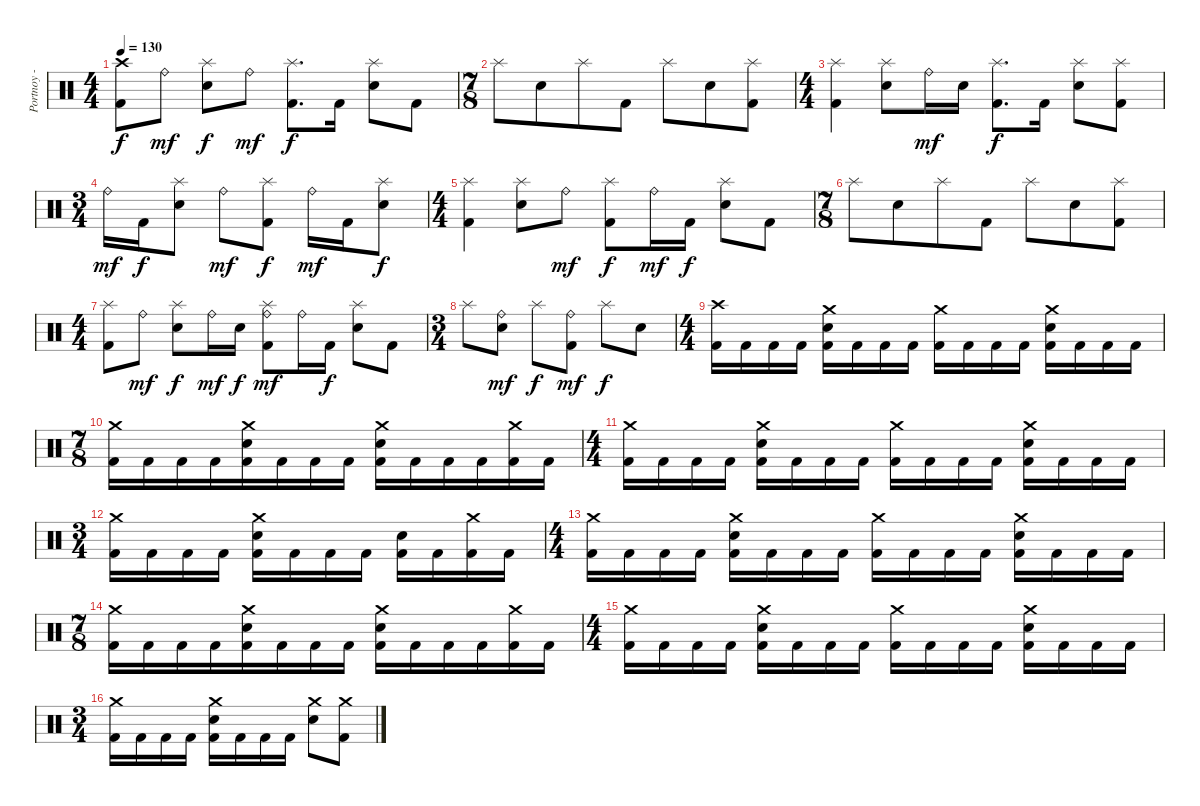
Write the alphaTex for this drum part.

\track ("Portnoy - Drums" "Portnoy - ") {instrument percussion}
\staff {score}
\articulation defaults
\ts (4 4)
\tempo 130
\clef neutral
\ks c
("Crash high (hit)" "Kick (hit) 2").8{dy f} "Ride (bell)".8{dy mf} ("Electric Snare (hit)" "Splash (hit)").8{dy f} "Ride (bell)".8{dy mf} ("Kick (hit) 2" "Splash (hit)").8{d dy f} "Kick (hit) 2".16 ("Electric Snare (hit)" "Splash (hit)").8 "Kick (hit) 2".8 |
\ts (7 8)
"Splash (hit)".8 "Electric Snare (hit)".8 "Splash (hit)".8 "Kick (hit) 2".8 "Splash (hit)".8 "Electric Snare (hit)".8 ("Kick (hit) 2" "Splash (hit)").8 |
\ts (4 4)
("Kick (hit) 2" "Splash (hit)").4 ("Electric Snare (hit)" "Splash (hit)").8 "Ride (bell)".16{dy mf} "Electric Snare (hit)".16 ("Kick (hit) 2" "Splash (hit)").8{d dy f} "Kick (hit) 2".16 ("Electric Snare (hit)" "Splash (hit)").8 ("Kick (hit) 2" "Splash (hit)").8 |
\ts (3 4)
"Ride (bell)".16{dy mf} "Kick (hit) 2".16{dy f} ("Electric Snare (hit)" "Splash (hit)").8 "Ride (bell)".8{dy mf} ("Kick (hit) 2" "Splash (hit)").8{dy f} "Ride (bell)".16{dy mf} "Kick (hit) 2".16 ("Electric Snare (hit)" "Splash (hit)").8{dy f} |
\ts (4 4)
("Kick (hit) 2" "Splash (hit)").4 ("Electric Snare (hit)" "Splash (hit)").8 "Ride (bell)".8{dy mf} ("Kick (hit) 2" "Splash (hit)").8{dy f} "Ride (bell)".16{dy mf} "Kick (hit) 2".16{dy f} ("Electric Snare (hit)" "Splash (hit)").8 "Kick (hit) 2".8 |
\ts (7 8)
"Splash (hit)".8 "Electric Snare (hit)".8 "Splash (hit)".8 "Kick (hit) 2".8 "Splash (hit)".8 "Electric Snare (hit)".8 ("Splash (hit)" "Kick (hit) 2").8 |
\ts (4 4)
("Kick (hit) 2" "Splash (hit)").8 "Ride (bell)".8{dy mf} ("Electric Snare (hit)" "Splash (hit)").8{dy f} "Ride (bell)".16{dy mf} "Electric Snare (hit)".16{dy f} ("Kick (hit) 2" "Splash (hit)" "Ride (bell)").8{dy mf} "Ride (bell)".16 "Kick (hit) 2".16{dy f} ("Electric Snare (hit)" "Splash (hit)").8 "Kick (hit) 2".8 |
\ts (3 4)
"Splash (hit)".8 ("Electric Snare (hit)" "Ride (bell)").8{dy mf} "Splash (hit)".8{dy f} ("Kick (hit) 2" "Ride (bell)").8{dy mf} "Splash (hit)".8{dy f} "Electric Snare (hit)".8 |
\ts (4 4)
("Crash high (hit)" "Kick (hit) 2").16 "Kick (hit) 2".16 "Kick (hit) 2".16 "Kick (hit) 2".16 ("Kick (hit) 2" "Electric Snare (hit)" "Crash medium (hit)").16 "Kick (hit) 2".16 "Kick (hit) 2".16 "Kick (hit) 2".16 ("Kick (hit) 2" "Crash medium (hit)").16 "Kick (hit) 2".16 "Kick (hit) 2".16 "Kick (hit) 2".16 ("Kick (hit) 2" "Electric Snare (hit)" "Crash medium (hit)").16 "Kick (hit) 2".16 "Kick (hit) 2".16 "Kick (hit) 2".16 |
\ts (7 8)
("Kick (hit) 2" "Crash medium (hit)").16 "Kick (hit) 2".16 "Kick (hit) 2".16 "Kick (hit) 2".16 ("Kick (hit) 2" "Electric Snare (hit)" "Crash medium (hit)").16 "Kick (hit) 2".16 "Kick (hit) 2".16 "Kick (hit) 2".16 ("Kick (hit) 2" "Electric Snare (hit)" "Crash medium (hit)").16 "Kick (hit) 2".16 "Kick (hit) 2".16 "Kick (hit) 2".16 ("Kick (hit) 2" "Crash medium (hit)").16 "Kick (hit) 2".16 |
\ts (4 4)
("Kick (hit) 2" "Crash medium (hit)").16 "Kick (hit) 2".16 "Kick (hit) 2".16 "Kick (hit) 2".16 ("Kick (hit) 2" "Crash medium (hit)" "Electric Snare (hit)").16 "Kick (hit) 2".16 "Kick (hit) 2".16 "Kick (hit) 2".16 ("Kick (hit) 2" "Crash medium (hit)").16 "Kick (hit) 2".16 "Kick (hit) 2".16 "Kick (hit) 2".16 ("Kick (hit) 2" "Electric Snare (hit)" "Crash medium (hit)").16 "Kick (hit) 2".16 "Kick (hit) 2".16 "Kick (hit) 2".16 |
\ts (3 4)
("Kick (hit) 2" "Crash medium (hit)").16 "Kick (hit) 2".16 "Kick (hit) 2".16 "Kick (hit) 2".16 ("Kick (hit) 2" "Electric Snare (hit)" "Crash medium (hit)").16 "Kick (hit) 2".16 "Kick (hit) 2".16 "Kick (hit) 2".16 ("Kick (hit) 2" "Electric Snare (hit)").16 "Kick (hit) 2".16 ("Kick (hit) 2" "Crash medium (hit)").16 "Kick (hit) 2".16 |
\ts (4 4)
("Kick (hit) 2" "Crash medium (hit)").16 "Kick (hit) 2".16 "Kick (hit) 2".16 "Kick (hit) 2".16 ("Kick (hit) 2" "Electric Snare (hit)" "Crash medium (hit)").16 "Kick (hit) 2".16 "Kick (hit) 2".16 "Kick (hit) 2".16 ("Kick (hit) 2" "Crash medium (hit)").16 "Kick (hit) 2".16 "Kick (hit) 2".16 "Kick (hit) 2".16 ("Kick (hit) 2" "Electric Snare (hit)" "Crash medium (hit)").16 "Kick (hit) 2".16 "Kick (hit) 2".16 "Kick (hit) 2".16 |
\ts (7 8)
("Kick (hit) 2" "Crash medium (hit)").16 "Kick (hit) 2".16 "Kick (hit) 2".16 "Kick (hit) 2".16 ("Kick (hit) 2" "Electric Snare (hit)" "Crash medium (hit)").16 "Kick (hit) 2".16 "Kick (hit) 2".16 "Kick (hit) 2".16 ("Kick (hit) 2" "Electric Snare (hit)" "Crash medium (hit)").16 "Kick (hit) 2".16 "Kick (hit) 2".16 "Kick (hit) 2".16 ("Kick (hit) 2" "Crash medium (hit)").16 "Kick (hit) 2".16 |
\ts (4 4)
("Kick (hit) 2" "Crash medium (hit)").16 "Kick (hit) 2".16 "Kick (hit) 2".16 "Kick (hit) 2".16 ("Kick (hit) 2" "Crash medium (hit)" "Electric Snare (hit)").16 "Kick (hit) 2".16 "Kick (hit) 2".16 "Kick (hit) 2".16 ("Kick (hit) 2" "Crash medium (hit)").16 "Kick (hit) 2".16 "Kick (hit) 2".16 "Kick (hit) 2".16 ("Kick (hit) 2" "Electric Snare (hit)" "Crash medium (hit)").16 "Kick (hit) 2".16 "Kick (hit) 2".16 "Kick (hit) 2".16 |
\ts (3 4)
("Kick (hit) 2" "Crash medium (hit)").16 "Kick (hit) 2".16 "Kick (hit) 2".16 "Kick (hit) 2".16 ("Kick (hit) 2" "Electric Snare (hit)" "Crash medium (hit)").16 "Kick (hit) 2".16 "Kick (hit) 2".16 "Kick (hit) 2".16 ("Crash medium (hit)" "Electric Snare (hit)").8 ("Crash medium (hit)" "Kick (hit) 2").8
